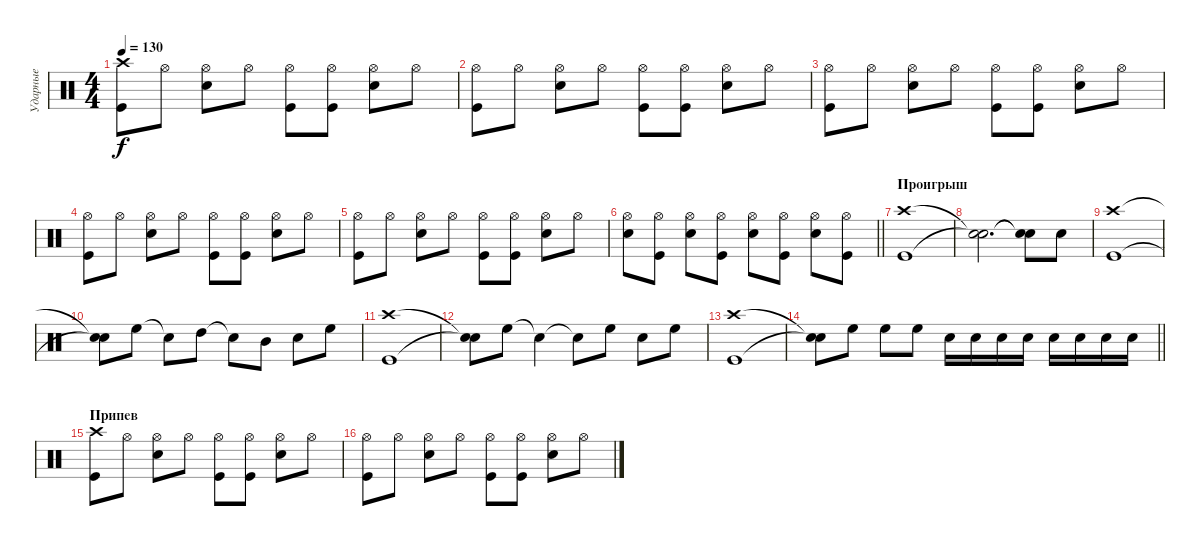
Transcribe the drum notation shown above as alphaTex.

\track ("Ударные" "Ударные") {instrument percussion}
\staff {score}
\articulation defaults
\ts (4 4)
\tempo 130
\clef neutral
\ks c
("Crash high (hit)" "Kick (hit)").8{dy f} "Hi-Hat (open)".8 ("Hi-Hat (open)" "Snare (hit) 2").8 "Hi-Hat (open)".8 ("Hi-Hat (open)" "Kick (hit)").8 ("Hi-Hat (open)" "Kick (hit)").8 ("Hi-Hat (open)" "Snare (hit) 2").8 "Hi-Hat (open)".8 |
("Hi-Hat (open)" "Kick (hit)").8 "Hi-Hat (open)".8 ("Hi-Hat (open)" "Snare (hit) 2").8 "Hi-Hat (open)".8 ("Hi-Hat (open)" "Kick (hit)").8 ("Hi-Hat (open)" "Kick (hit)").8 ("Hi-Hat (open)" "Snare (hit) 2").8 "Hi-Hat (open)".8 |
("Hi-Hat (open)" "Kick (hit)").8 "Hi-Hat (open)".8 ("Hi-Hat (open)" "Snare (hit) 2").8 "Hi-Hat (open)".8 ("Hi-Hat (open)" "Kick (hit)").8 ("Hi-Hat (open)" "Kick (hit)").8 ("Hi-Hat (open)" "Snare (hit) 2").8 "Hi-Hat (open)".8 |
("Hi-Hat (open)" "Kick (hit)").8 "Hi-Hat (open)".8 ("Hi-Hat (open)" "Snare (hit) 2").8 "Hi-Hat (open)".8 ("Hi-Hat (open)" "Kick (hit)").8 ("Hi-Hat (open)" "Kick (hit)").8 ("Hi-Hat (open)" "Snare (hit) 2").8 "Hi-Hat (open)".8 |
("Hi-Hat (open)" "Kick (hit)").8 "Hi-Hat (open)".8 ("Hi-Hat (open)" "Snare (hit) 2").8 "Hi-Hat (open)".8 ("Hi-Hat (open)" "Kick (hit)").8 ("Hi-Hat (open)" "Kick (hit)").8 ("Hi-Hat (open)" "Snare (hit) 2").8 "Hi-Hat (open)".8 |
\barLineRight lightlight
("Hi-Hat (open)" "Snare (hit) 2").8 ("Hi-Hat (open)" "Kick (hit)").8 ("Hi-Hat (open)" "Snare (hit) 2").8 ("Hi-Hat (open)" "Kick (hit)").8 ("Hi-Hat (open)" "Snare (hit) 2").8 ("Hi-Hat (open)" "Kick (hit)").8 ("Hi-Hat (open)" "Snare (hit) 2").8 ("Hi-Hat (open)" "Kick (hit)").8 |
\section ("" "Проигрыш")
("Crash high (hit)" "Kick (hit)").1 |
("Snare (hit)"{t} "Snare (hit)"{t}).2{d} ("Snare (hit)"{t} "Snare (hit)"{t}).8 "Snare (hit) 2".8 |
("Crash high (hit)" "Kick (hit)").1 |
("Snare (hit)"{t} "Snare (hit)"{t}).8 "High Floor Tom (hit)".8 "Snare (hit)"{t}.8 "High Tom (hit)".8 "Snare (hit)"{t}.8 "Mid Tom (hit)".8 "Snare (hit) 2".8 "High Floor Tom (hit)".8 |
("Crash high (hit)" "Kick (hit)").1 |
("Snare (hit)"{t} "Snare (hit)"{t}).8 "High Floor Tom (hit)".8 "Snare (hit)"{t}.4 "Snare (hit)"{t}.8 "High Floor Tom (hit)".8 "Snare (hit) 2".8 "High Floor Tom (hit)".8 |
("Crash high (hit)" "Kick (hit)").1 |
\barLineRight lightlight
("Snare (hit)"{t} "Snare (hit)"{t}).8 "High Floor Tom (hit)".8 "High Floor Tom (hit)".8 "High Floor Tom (hit)".8 "Snare (hit) 2".16 "Snare (hit) 2".16 "Snare (hit) 2".16 "Snare (hit) 2".16 "Snare (hit) 2".16 "Snare (hit) 2".16 "Snare (hit) 2".16 "Snare (hit) 2".16 |
\section ("" "Припев")
("Crash high (hit)" "Kick (hit)").8 "Hi-Hat (open)".8 ("Hi-Hat (open)" "Snare (hit) 2").8 "Hi-Hat (open)".8 ("Hi-Hat (open)" "Kick (hit)").8 ("Hi-Hat (open)" "Kick (hit)").8 ("Hi-Hat (open)" "Snare (hit) 2").8 "Hi-Hat (open)".8 |
("Hi-Hat (open)" "Kick (hit)").8 "Hi-Hat (open)".8 ("Hi-Hat (open)" "Snare (hit) 2").8 "Hi-Hat (open)".8 ("Hi-Hat (open)" "Kick (hit)").8 ("Hi-Hat (open)" "Kick (hit)").8 ("Hi-Hat (open)" "Snare (hit) 2").8 "Hi-Hat (open)".8
